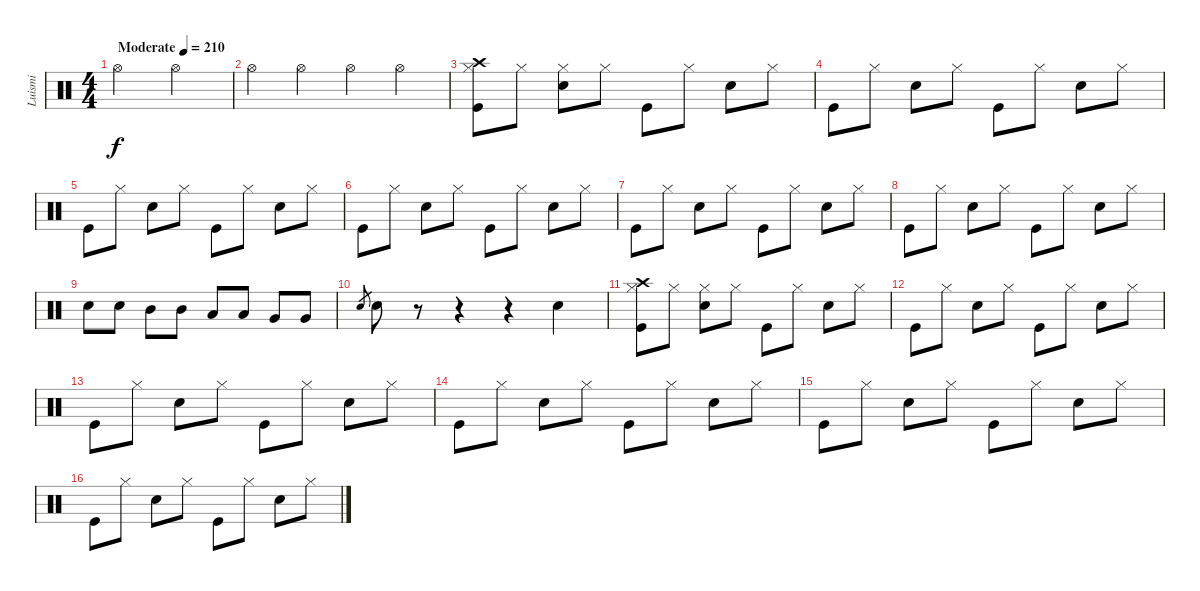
\track ("Luismi" "Luismi") {instrument percussion}
\staff {score}
\articulation defaults
\ts (4 4)
\tempo (210 "Moderate")
\clef neutral
\ks c "Hi-Hat (open)".2{dy f} "Hi-Hat (open)".2
|
"Hi-Hat (open)".4 "Hi-Hat (open)".4 "Hi-Hat (open)".4 "Hi-Hat (open)".4 |
("Kick (hit)" "Crash high (hit)" "Hi-Hat (closed)").8 "Hi-Hat (closed)".8 ("Snare (hit) 2" "Hi-Hat (closed)").8 "Hi-Hat (closed)".8 "Kick (hit)".8 "Hi-Hat (closed)".8 "Snare (hit) 2".8 "Hi-Hat (closed)".8 |
"Kick (hit)".8 "Hi-Hat (closed)".8 "Snare (hit) 2".8 "Hi-Hat (closed)".8 "Kick (hit)".8 "Hi-Hat (closed)".8 "Snare (hit) 2".8 "Hi-Hat (closed)".8 |
"Kick (hit)".8 "Hi-Hat (closed)".8 "Snare (hit) 2".8 "Hi-Hat (closed)".8 "Kick (hit)".8 "Hi-Hat (closed)".8 "Snare (hit) 2".8 "Hi-Hat (closed)".8 |
"Kick (hit)".8 "Hi-Hat (closed)".8 "Snare (hit) 2".8 "Hi-Hat (closed)".8 "Kick (hit)".8 "Hi-Hat (closed)".8 "Snare (hit) 2".8 "Hi-Hat (closed)".8 |
"Kick (hit)".8 "Hi-Hat (closed)".8 "Snare (hit) 2".8 "Hi-Hat (closed)".8 "Kick (hit)".8 "Hi-Hat (closed)".8 "Snare (hit) 2".8 "Hi-Hat (closed)".8 |
"Kick (hit)".8 "Hi-Hat (closed)".8 "Snare (hit) 2".8 "Hi-Hat (closed)".8 "Kick (hit)".8 "Hi-Hat (closed)".8 "Snare (hit) 2".8 "Hi-Hat (closed)".8 |
"Snare (hit) 2".8 "Snare (hit) 2".8 "Mid Tom (hit)".8 "Mid Tom (hit)".8 "Low Tom (hit)".8 "Low Tom (hit)".8 "Very Low Tom (hit)".8 "Very Low Tom (hit)".8 |
"Snare (hit) 2".8{gr} "Snare (hit) 2".8 r.8 r.4 r.4 "Snare (hit) 2".4 |
("Kick (hit)" "Crash high (hit)" "Hi-Hat (closed)").8 "Hi-Hat (closed)".8 ("Snare (hit) 2" "Hi-Hat (closed)").8 "Hi-Hat (closed)".8 "Kick (hit)".8 "Hi-Hat (closed)".8 "Snare (hit) 2".8 "Hi-Hat (closed)".8 |
"Kick (hit)".8 "Hi-Hat (closed)".8 "Snare (hit) 2".8 "Hi-Hat (closed)".8 "Kick (hit)".8 "Hi-Hat (closed)".8 "Snare (hit) 2".8 "Hi-Hat (closed)".8 |
"Kick (hit)".8 "Hi-Hat (closed)".8 "Snare (hit) 2".8 "Hi-Hat (closed)".8 "Kick (hit)".8 "Hi-Hat (closed)".8 "Snare (hit) 2".8 "Hi-Hat (closed)".8 |
"Kick (hit)".8 "Hi-Hat (closed)".8 "Snare (hit) 2".8 "Hi-Hat (closed)".8 "Kick (hit)".8 "Hi-Hat (closed)".8 "Snare (hit) 2".8 "Hi-Hat (closed)".8 |
"Kick (hit)".8 "Hi-Hat (closed)".8 "Snare (hit) 2".8 "Hi-Hat (closed)".8 "Kick (hit)".8 "Hi-Hat (closed)".8 "Snare (hit) 2".8 "Hi-Hat (closed)".8 |
"Kick (hit)".8 "Hi-Hat (closed)".8 "Snare (hit) 2".8 "Hi-Hat (closed)".8 "Kick (hit)".8 "Hi-Hat (closed)".8 "Snare (hit) 2".8 "Hi-Hat (closed)".8
